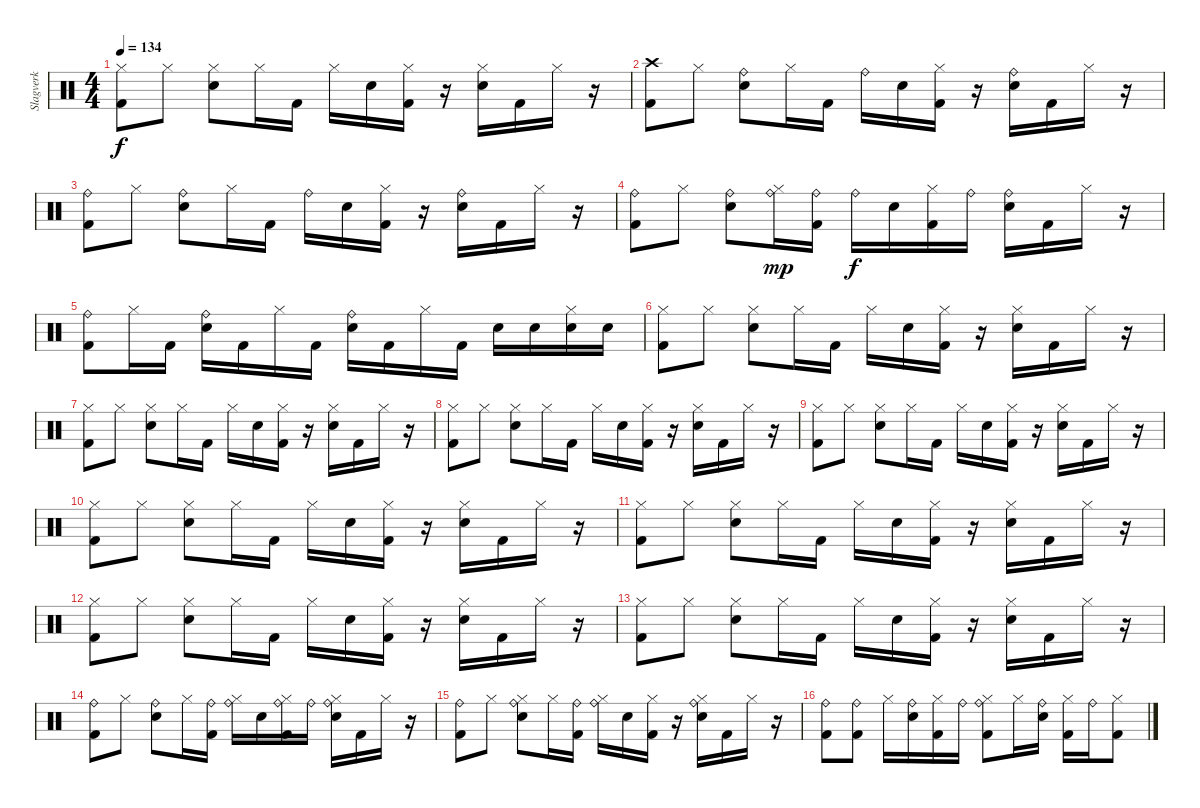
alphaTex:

\track ("Slagverk" "Slagverk") {instrument percussion}
\staff {score}
\articulation defaults
\ts (4 4)
\tempo 134
\clef neutral
\ks c
("Hi-Hat (closed)" "Kick (hit) 2").8{dy f} "Hi-Hat (closed)".8 ("Hi-Hat (closed)" "Electric Snare (hit)").8 "Hi-Hat (closed)".16 "Kick (hit) 2".16 "Hi-Hat (closed)".16 "Electric Snare (hit)".16 ("Hi-Hat (closed)" "Kick (hit) 2").16 r.16 ("Hi-Hat (closed)" "Electric Snare (hit)").16 "Kick (hit) 2".16 "Hi-Hat (closed)".16 r.16 |
("Crash high (hit)" "Kick (hit) 2").8 "Hi-Hat (closed)".8 ("Ride (bell)" "Electric Snare (hit)").8 "Hi-Hat (closed)".16 "Kick (hit) 2".16 "Ride (bell)".16 "Electric Snare (hit)".16 ("Hi-Hat (closed)" "Kick (hit) 2").16 r.16 ("Ride (bell)" "Electric Snare (hit)").16 "Kick (hit) 2".16 "Hi-Hat (closed)".16 r.16 |
("Ride (bell)" "Kick (hit) 2").8 "Hi-Hat (closed)".8 ("Ride (bell)" "Electric Snare (hit)").8 "Hi-Hat (closed)".16 "Kick (hit) 2".16 "Ride (bell)".16 "Electric Snare (hit)".16 ("Hi-Hat (closed)" "Kick (hit) 2").16 r.16 ("Ride (bell)" "Electric Snare (hit)").16 "Kick (hit) 2".16 "Hi-Hat (closed)".16 r.16 |
("Ride (bell)" "Kick (hit) 2").8 "Hi-Hat (closed)".8 ("Ride (bell)" "Electric Snare (hit)").8 ("Ride (bell)" "Hi-Hat (closed)").16{dy mp} ("Ride (bell)" "Kick (hit) 2").16 "Ride (bell)".16{dy f} "Electric Snare (hit)".16 ("Hi-Hat (closed)" "Kick (hit) 2").16 "Ride (bell)".16 ("Ride (bell)" "Electric Snare (hit)").16 "Kick (hit) 2".16 "Hi-Hat (closed)".16 r.16 |
("Ride (bell)" "Kick (hit) 2").8 "Hi-Hat (closed)".16 "Kick (hit) 2".16 ("Ride (bell)" "Electric Snare (hit)").16 "Kick (hit) 2".16 "Hi-Hat (closed)".16 "Kick (hit) 2".16 ("Ride (bell)" "Electric Snare (hit)").16 "Kick (hit) 2".16 "Hi-Hat (closed)".16 "Kick (hit) 2".16 "Electric Snare (hit)".16 "Electric Snare (hit)".16 ("Hi-Hat (closed)" "Electric Snare (hit)").16 "Electric Snare (hit)".16 |
("Hi-Hat (closed)" "Kick (hit) 2").8 "Hi-Hat (closed)".8 ("Hi-Hat (closed)" "Electric Snare (hit)").8 "Hi-Hat (closed)".16 "Kick (hit) 2".16 "Hi-Hat (closed)".16 "Electric Snare (hit)".16 ("Hi-Hat (closed)" "Kick (hit) 2").16 r.16 ("Hi-Hat (closed)" "Electric Snare (hit)").16 "Kick (hit) 2".16 "Hi-Hat (closed)".16 r.16 |
("Hi-Hat (closed)" "Kick (hit) 2").8 "Hi-Hat (closed)".8 ("Hi-Hat (closed)" "Electric Snare (hit)").8 "Hi-Hat (closed)".16 "Kick (hit) 2".16 "Hi-Hat (closed)".16 "Electric Snare (hit)".16 ("Hi-Hat (closed)" "Kick (hit) 2").16 r.16 ("Hi-Hat (closed)" "Electric Snare (hit)").16 "Kick (hit) 2".16 "Hi-Hat (closed)".16 r.16 |
("Hi-Hat (closed)" "Kick (hit) 2").8 "Hi-Hat (closed)".8 ("Hi-Hat (closed)" "Electric Snare (hit)").8 "Hi-Hat (closed)".16 "Kick (hit) 2".16 "Hi-Hat (closed)".16 "Electric Snare (hit)".16 ("Hi-Hat (closed)" "Kick (hit) 2").16 r.16 ("Hi-Hat (closed)" "Electric Snare (hit)").16 "Kick (hit) 2".16 "Hi-Hat (closed)".16 r.16 |
("Hi-Hat (closed)" "Kick (hit) 2").8 "Hi-Hat (closed)".8 ("Hi-Hat (closed)" "Electric Snare (hit)").8 "Hi-Hat (closed)".16 "Kick (hit) 2".16 "Hi-Hat (closed)".16 "Electric Snare (hit)".16 ("Hi-Hat (closed)" "Kick (hit) 2").16 r.16 ("Hi-Hat (closed)" "Electric Snare (hit)").16 "Kick (hit) 2".16 "Hi-Hat (closed)".16 r.16 |
("Hi-Hat (closed)" "Kick (hit) 2").8 "Hi-Hat (closed)".8 ("Hi-Hat (closed)" "Electric Snare (hit)").8 "Hi-Hat (closed)".16 "Kick (hit) 2".16 "Hi-Hat (closed)".16 "Electric Snare (hit)".16 ("Hi-Hat (closed)" "Kick (hit) 2").16 r.16 ("Hi-Hat (closed)" "Electric Snare (hit)").16 "Kick (hit) 2".16 "Hi-Hat (closed)".16 r.16 |
("Hi-Hat (closed)" "Kick (hit) 2").8 "Hi-Hat (closed)".8 ("Hi-Hat (closed)" "Electric Snare (hit)").8 "Hi-Hat (closed)".16 "Kick (hit) 2".16 "Hi-Hat (closed)".16 "Electric Snare (hit)".16 ("Hi-Hat (closed)" "Kick (hit) 2").16 r.16 ("Hi-Hat (closed)" "Electric Snare (hit)").16 "Kick (hit) 2".16 "Hi-Hat (closed)".16 r.16 |
("Hi-Hat (closed)" "Kick (hit) 2").8 "Hi-Hat (closed)".8 ("Hi-Hat (closed)" "Electric Snare (hit)").8 "Hi-Hat (closed)".16 "Kick (hit) 2".16 "Hi-Hat (closed)".16 "Electric Snare (hit)".16 ("Hi-Hat (closed)" "Kick (hit) 2").16 r.16 ("Hi-Hat (closed)" "Electric Snare (hit)").16 "Kick (hit) 2".16 "Hi-Hat (closed)".16 r.16 |
("Hi-Hat (closed)" "Kick (hit) 2").8 "Hi-Hat (closed)".8 ("Hi-Hat (closed)" "Electric Snare (hit)").8 "Hi-Hat (closed)".16 "Kick (hit) 2".16 "Hi-Hat (closed)".16 "Electric Snare (hit)".16 ("Hi-Hat (closed)" "Kick (hit) 2").16 r.16 ("Hi-Hat (closed)" "Electric Snare (hit)").16 "Kick (hit) 2".16 "Hi-Hat (closed)".16 r.16 |
("Ride (bell)" "Kick (hit) 2").8 "Hi-Hat (closed)".8 ("Ride (bell)" "Electric Snare (hit)").8 "Hi-Hat (closed)".16 ("Ride (bell)" "Kick (hit) 2").16 ("Ride (bell)" "Hi-Hat (closed)").16 "Electric Snare (hit)".16 ("Ride (bell)" "Hi-Hat (closed)" "Kick (hit) 2").16 "Ride (bell)".16 ("Ride (bell)" "Hi-Hat (closed)" "Electric Snare (hit)").16 "Kick (hit) 2".16 "Hi-Hat (closed)".16 r.16 |
("Ride (bell)" "Kick (hit) 2").8 "Hi-Hat (closed)".8 ("Ride (bell)" "Hi-Hat (closed)" "Electric Snare (hit)").8 "Hi-Hat (closed)".16 ("Ride (bell)" "Kick (hit) 2").16 ("Ride (bell)" "Hi-Hat (closed)").16 "Electric Snare (hit)".16 ("Hi-Hat (closed)" "Kick (hit) 2").16 r.16 ("Ride (bell)" "Hi-Hat (closed)" "Electric Snare (hit)").16 "Kick (hit) 2".16 "Hi-Hat (closed)".16 r.16 |
("Ride (bell)" "Kick (hit) 2").8 ("Ride (bell)" "Kick (hit) 2").8 "Hi-Hat (closed)".16 ("Ride (bell)" "Electric Snare (hit)").16 ("Kick (hit) 2" "Hi-Hat (closed)").16 "Ride (bell)".16 ("Ride (bell)" "Hi-Hat (closed)" "Kick (hit) 2").8 "Hi-Hat (closed)".16 ("Ride (bell)" "Electric Snare (hit)").16 ("Kick (hit) 2" "Hi-Hat (closed)").16 "Ride (bell)".16 ("Hi-Hat (closed)" "Kick (hit) 2").8
